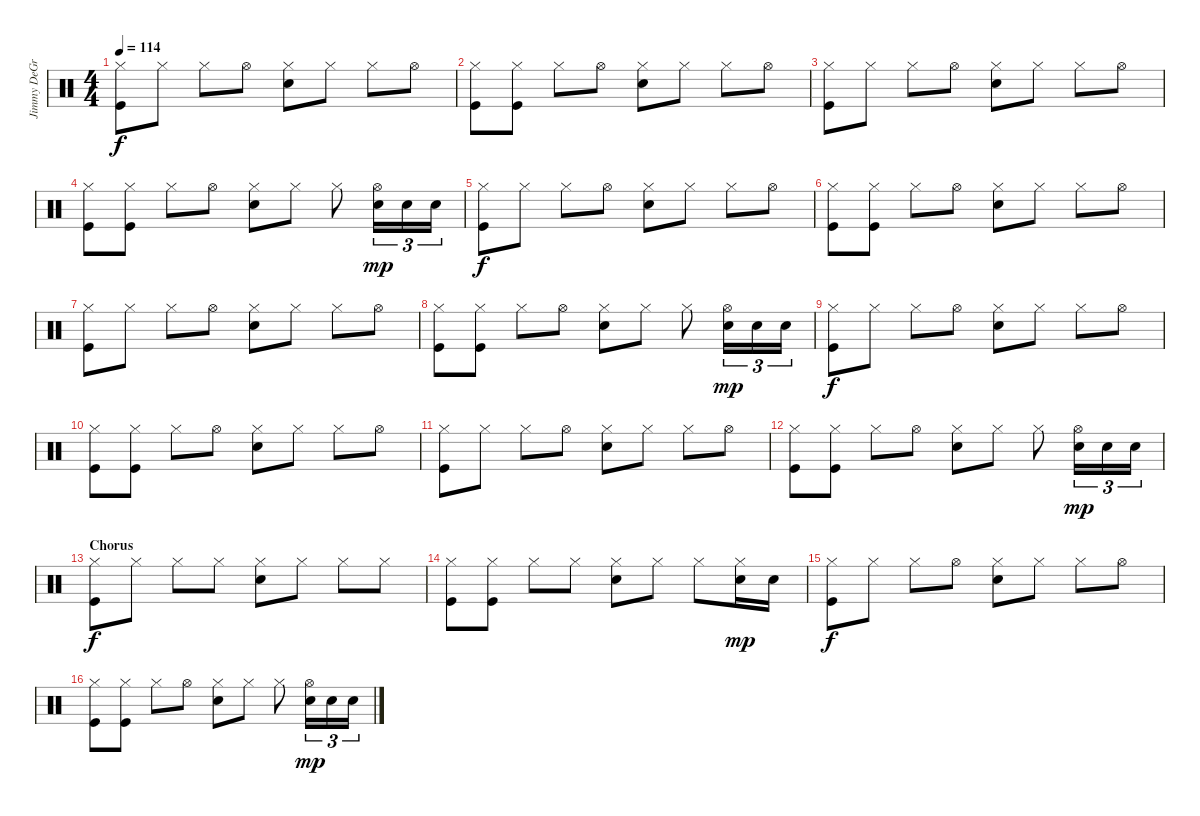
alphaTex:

\track ("Jimmy DeGrasso" "Jimmy DeGr") {instrument percussion}
\staff {score}
\articulation defaults
\ts (4 4)
\tempo 114
\clef neutral
\ks c
("Hi-Hat (closed)" "Kick (hit)").8{dy f} "Hi-Hat (closed)".8 "Hi-Hat (closed)".8 "Hi-Hat (open)".8 ("Hi-Hat (closed)" "Snare (hit) 2").8 "Hi-Hat (closed)".8 "Hi-Hat (closed)".8 "Hi-Hat (open)".8 |
("Hi-Hat (closed)" "Kick (hit)").8 ("Hi-Hat (closed)" "Kick (hit)").8 "Hi-Hat (closed)".8 "Hi-Hat (open)".8 ("Hi-Hat (closed)" "Snare (hit) 2").8 "Hi-Hat (closed)".8 "Hi-Hat (closed)".8 "Hi-Hat (open)".8 |
("Hi-Hat (closed)" "Kick (hit)").8 "Hi-Hat (closed)".8 "Hi-Hat (closed)".8 "Hi-Hat (open)".8 ("Hi-Hat (closed)" "Snare (hit) 2").8 "Hi-Hat (closed)".8 "Hi-Hat (closed)".8 "Hi-Hat (open)".8 |
("Hi-Hat (closed)" "Kick (hit)").8 ("Hi-Hat (closed)" "Kick (hit)").8 "Hi-Hat (closed)".8 "Hi-Hat (open)".8 ("Hi-Hat (closed)" "Snare (hit) 2").8 "Hi-Hat (closed)".8 "Hi-Hat (closed)".8 ("Hi-Hat (open)" "Snare (hit) 2").16{tu (3 2) dy mp} "Snare (hit) 2".16{tu (3 2)} "Snare (hit) 2".16{tu (3 2)} |
("Hi-Hat (closed)" "Kick (hit)").8{dy f} "Hi-Hat (closed)".8 "Hi-Hat (closed)".8 "Hi-Hat (open)".8 ("Hi-Hat (closed)" "Snare (hit) 2").8 "Hi-Hat (closed)".8 "Hi-Hat (closed)".8 "Hi-Hat (open)".8 |
("Hi-Hat (closed)" "Kick (hit)").8 ("Hi-Hat (closed)" "Kick (hit)").8 "Hi-Hat (closed)".8 "Hi-Hat (open)".8 ("Hi-Hat (closed)" "Snare (hit) 2").8 "Hi-Hat (closed)".8 "Hi-Hat (closed)".8 "Hi-Hat (open)".8 |
("Hi-Hat (closed)" "Kick (hit)").8 "Hi-Hat (closed)".8 "Hi-Hat (closed)".8 "Hi-Hat (open)".8 ("Hi-Hat (closed)" "Snare (hit) 2").8 "Hi-Hat (closed)".8 "Hi-Hat (closed)".8 "Hi-Hat (open)".8 |
("Hi-Hat (closed)" "Kick (hit)").8 ("Hi-Hat (closed)" "Kick (hit)").8 "Hi-Hat (closed)".8 "Hi-Hat (open)".8 ("Hi-Hat (closed)" "Snare (hit) 2").8 "Hi-Hat (closed)".8 "Hi-Hat (closed)".8 ("Hi-Hat (open)" "Snare (hit) 2").16{tu (3 2) dy mp} "Snare (hit) 2".16{tu (3 2)} "Snare (hit) 2".16{tu (3 2)} |
("Hi-Hat (closed)" "Kick (hit)").8{dy f} "Hi-Hat (closed)".8 "Hi-Hat (closed)".8 "Hi-Hat (open)".8 ("Hi-Hat (closed)" "Snare (hit) 2").8 "Hi-Hat (closed)".8 "Hi-Hat (closed)".8 "Hi-Hat (open)".8 |
("Hi-Hat (closed)" "Kick (hit)").8 ("Hi-Hat (closed)" "Kick (hit)").8 "Hi-Hat (closed)".8 "Hi-Hat (open)".8 ("Hi-Hat (closed)" "Snare (hit) 2").8 "Hi-Hat (closed)".8 "Hi-Hat (closed)".8 "Hi-Hat (open)".8 |
("Hi-Hat (closed)" "Kick (hit)").8 "Hi-Hat (closed)".8 "Hi-Hat (closed)".8 "Hi-Hat (open)".8 ("Hi-Hat (closed)" "Snare (hit) 2").8 "Hi-Hat (closed)".8 "Hi-Hat (closed)".8 "Hi-Hat (open)".8 |
("Hi-Hat (closed)" "Kick (hit)").8 ("Hi-Hat (closed)" "Kick (hit)").8 "Hi-Hat (closed)".8 "Hi-Hat (open)".8 ("Hi-Hat (closed)" "Snare (hit) 2").8 "Hi-Hat (closed)".8 "Hi-Hat (closed)".8 ("Hi-Hat (open)" "Snare (hit) 2").16{tu (3 2) dy mp} "Snare (hit) 2".16{tu (3 2)} "Snare (hit) 2".16{tu (3 2)} |
\section ("" "Chorus")
("Hi-Hat (closed)" "Kick (hit)").8{dy f volume 12} "Hi-Hat (closed)".8 "Hi-Hat (closed)".8 "Hi-Hat (closed)".8 ("Hi-Hat (closed)" "Snare (hit) 2").8 "Hi-Hat (closed)".8 "Hi-Hat (closed)".8 "Hi-Hat (closed)".8 |
("Hi-Hat (closed)" "Kick (hit)").8 ("Hi-Hat (closed)" "Kick (hit)").8 "Hi-Hat (closed)".8 "Hi-Hat (closed)".8 ("Hi-Hat (closed)" "Snare (hit) 2").8 "Hi-Hat (closed)".8 "Hi-Hat (closed)".8 ("Hi-Hat (closed)" "Snare (hit) 2").16{dy mp} "Snare (hit) 2".16 |
("Hi-Hat (closed)" "Kick (hit)").8{dy f} "Hi-Hat (closed)".8 "Hi-Hat (closed)".8 "Hi-Hat (open)".8 ("Hi-Hat (closed)" "Snare (hit) 2").8 "Hi-Hat (closed)".8 "Hi-Hat (closed)".8 "Hi-Hat (open)".8 |
("Hi-Hat (closed)" "Kick (hit)").8 ("Hi-Hat (closed)" "Kick (hit)").8 "Hi-Hat (closed)".8 "Hi-Hat (open)".8 ("Hi-Hat (closed)" "Snare (hit) 2").8 "Hi-Hat (closed)".8 "Hi-Hat (closed)".8 ("Hi-Hat (open)" "Snare (hit) 2").16{tu (3 2) dy mp} "Snare (hit) 2".16{tu (3 2)} "Snare (hit) 2".16{tu (3 2)}
